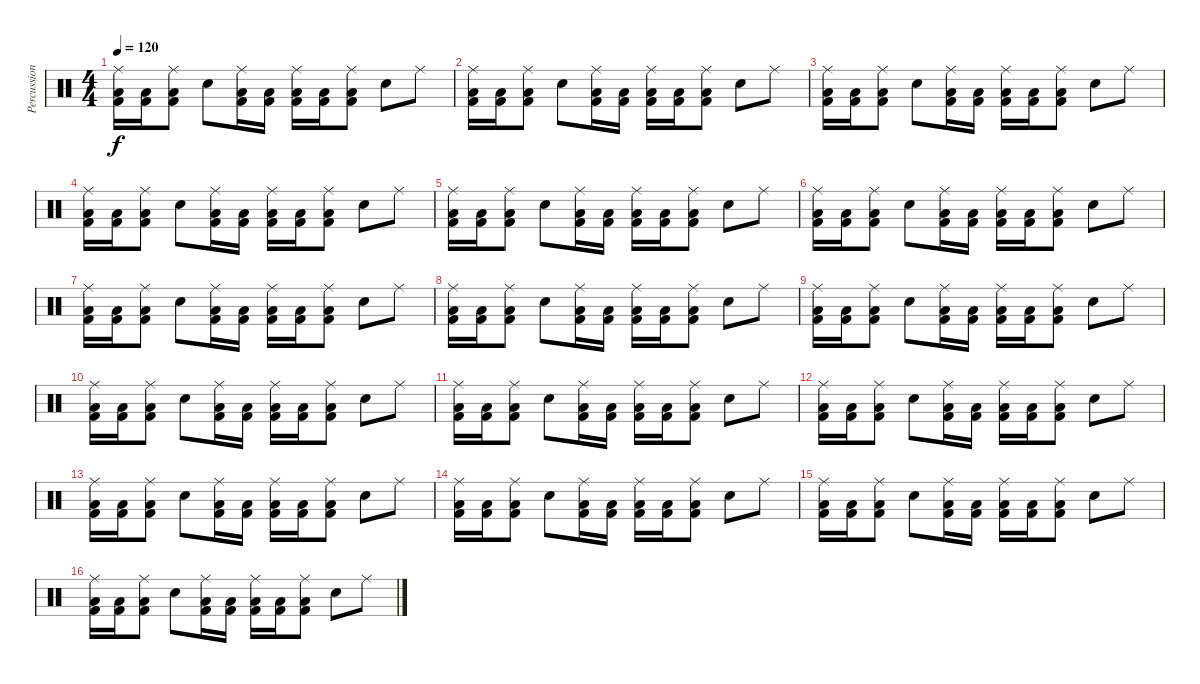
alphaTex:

\track ("Percussion" "Percussion") {instrument percussion}
\staff {score}
\articulation defaults
\ts (4 4)
\tempo 120
\clef neutral
\ks c
("Ride (middle)" "Low Floor Tom (hit)" "Kick (hit) 2").16{dy f} ("Low Floor Tom (hit)" "Kick (hit) 2").16 ("Ride (middle)" "Low Floor Tom (hit)" "Kick (hit) 2").8 "Electric Snare (hit)".8 ("Ride (middle)" "Low Floor Tom (hit)" "Kick (hit) 2").16 ("Low Floor Tom (hit)" "Kick (hit) 2").16 ("Ride (middle)" "Low Floor Tom (hit)" "Kick (hit) 2").16 ("Low Floor Tom (hit)" "Kick (hit) 2").16 ("Ride (middle)" "Low Floor Tom (hit)" "Kick (hit) 2").8 "Electric Snare (hit)".8 "Ride (middle)".8 |
("Ride (middle)" "Low Floor Tom (hit)" "Kick (hit) 2").16 ("Low Floor Tom (hit)" "Kick (hit) 2").16 ("Ride (middle)" "Low Floor Tom (hit)" "Kick (hit) 2").8 "Electric Snare (hit)".8 ("Ride (middle)" "Low Floor Tom (hit)" "Kick (hit) 2").16 ("Low Floor Tom (hit)" "Kick (hit) 2").16 ("Ride (middle)" "Low Floor Tom (hit)" "Kick (hit) 2").16 ("Low Floor Tom (hit)" "Kick (hit) 2").16 ("Ride (middle)" "Low Floor Tom (hit)" "Kick (hit) 2").8 "Electric Snare (hit)".8 "Ride (middle)".8 |
("Ride (middle)" "Low Floor Tom (hit)" "Kick (hit) 2").16 ("Low Floor Tom (hit)" "Kick (hit) 2").16 ("Ride (middle)" "Low Floor Tom (hit)" "Kick (hit) 2").8 "Electric Snare (hit)".8 ("Ride (middle)" "Low Floor Tom (hit)" "Kick (hit) 2").16 ("Low Floor Tom (hit)" "Kick (hit) 2").16 ("Ride (middle)" "Low Floor Tom (hit)" "Kick (hit) 2").16 ("Low Floor Tom (hit)" "Kick (hit) 2").16 ("Ride (middle)" "Low Floor Tom (hit)" "Kick (hit) 2").8 "Electric Snare (hit)".8 "Ride (middle)".8 |
("Ride (middle)" "Low Floor Tom (hit)" "Kick (hit) 2").16 ("Low Floor Tom (hit)" "Kick (hit) 2").16 ("Ride (middle)" "Low Floor Tom (hit)" "Kick (hit) 2").8 "Electric Snare (hit)".8 ("Ride (middle)" "Low Floor Tom (hit)" "Kick (hit) 2").16 ("Low Floor Tom (hit)" "Kick (hit) 2").16 ("Ride (middle)" "Low Floor Tom (hit)" "Kick (hit) 2").16 ("Low Floor Tom (hit)" "Kick (hit) 2").16 ("Ride (middle)" "Low Floor Tom (hit)" "Kick (hit) 2").8 "Electric Snare (hit)".8 "Ride (middle)".8 |
("Ride (middle)" "Low Floor Tom (hit)" "Kick (hit) 2").16 ("Low Floor Tom (hit)" "Kick (hit) 2").16 ("Ride (middle)" "Low Floor Tom (hit)" "Kick (hit) 2").8 "Electric Snare (hit)".8 ("Ride (middle)" "Low Floor Tom (hit)" "Kick (hit) 2").16 ("Low Floor Tom (hit)" "Kick (hit) 2").16 ("Ride (middle)" "Low Floor Tom (hit)" "Kick (hit) 2").16 ("Low Floor Tom (hit)" "Kick (hit) 2").16 ("Ride (middle)" "Low Floor Tom (hit)" "Kick (hit) 2").8 "Electric Snare (hit)".8 "Ride (middle)".8 |
("Ride (middle)" "Low Floor Tom (hit)" "Kick (hit) 2").16 ("Low Floor Tom (hit)" "Kick (hit) 2").16 ("Ride (middle)" "Low Floor Tom (hit)" "Kick (hit) 2").8 "Electric Snare (hit)".8 ("Ride (middle)" "Low Floor Tom (hit)" "Kick (hit) 2").16 ("Low Floor Tom (hit)" "Kick (hit) 2").16 ("Ride (middle)" "Low Floor Tom (hit)" "Kick (hit) 2").16 ("Low Floor Tom (hit)" "Kick (hit) 2").16 ("Ride (middle)" "Low Floor Tom (hit)" "Kick (hit) 2").8 "Electric Snare (hit)".8 "Ride (middle)".8 |
("Ride (middle)" "Low Floor Tom (hit)" "Kick (hit) 2").16 ("Low Floor Tom (hit)" "Kick (hit) 2").16 ("Ride (middle)" "Low Floor Tom (hit)" "Kick (hit) 2").8 "Electric Snare (hit)".8 ("Ride (middle)" "Low Floor Tom (hit)" "Kick (hit) 2").16 ("Low Floor Tom (hit)" "Kick (hit) 2").16 ("Ride (middle)" "Low Floor Tom (hit)" "Kick (hit) 2").16 ("Low Floor Tom (hit)" "Kick (hit) 2").16 ("Ride (middle)" "Low Floor Tom (hit)" "Kick (hit) 2").8 "Electric Snare (hit)".8 "Ride (middle)".8 |
("Ride (middle)" "Low Floor Tom (hit)" "Kick (hit) 2").16 ("Low Floor Tom (hit)" "Kick (hit) 2").16 ("Ride (middle)" "Low Floor Tom (hit)" "Kick (hit) 2").8 "Electric Snare (hit)".8 ("Ride (middle)" "Low Floor Tom (hit)" "Kick (hit) 2").16 ("Low Floor Tom (hit)" "Kick (hit) 2").16 ("Ride (middle)" "Low Floor Tom (hit)" "Kick (hit) 2").16 ("Low Floor Tom (hit)" "Kick (hit) 2").16 ("Ride (middle)" "Low Floor Tom (hit)" "Kick (hit) 2").8 "Electric Snare (hit)".8 "Ride (middle)".8 |
("Ride (middle)" "Low Floor Tom (hit)" "Kick (hit) 2").16 ("Low Floor Tom (hit)" "Kick (hit) 2").16 ("Ride (middle)" "Low Floor Tom (hit)" "Kick (hit) 2").8 "Electric Snare (hit)".8 ("Ride (middle)" "Low Floor Tom (hit)" "Kick (hit) 2").16 ("Low Floor Tom (hit)" "Kick (hit) 2").16 ("Ride (middle)" "Low Floor Tom (hit)" "Kick (hit) 2").16 ("Low Floor Tom (hit)" "Kick (hit) 2").16 ("Ride (middle)" "Low Floor Tom (hit)" "Kick (hit) 2").8 "Electric Snare (hit)".8 "Ride (middle)".8 |
("Ride (middle)" "Low Floor Tom (hit)" "Kick (hit) 2").16 ("Low Floor Tom (hit)" "Kick (hit) 2").16 ("Ride (middle)" "Low Floor Tom (hit)" "Kick (hit) 2").8 "Electric Snare (hit)".8 ("Ride (middle)" "Low Floor Tom (hit)" "Kick (hit) 2").16 ("Low Floor Tom (hit)" "Kick (hit) 2").16 ("Ride (middle)" "Low Floor Tom (hit)" "Kick (hit) 2").16 ("Low Floor Tom (hit)" "Kick (hit) 2").16 ("Ride (middle)" "Low Floor Tom (hit)" "Kick (hit) 2").8 "Electric Snare (hit)".8 "Ride (middle)".8 |
("Ride (middle)" "Low Floor Tom (hit)" "Kick (hit) 2").16 ("Low Floor Tom (hit)" "Kick (hit) 2").16 ("Ride (middle)" "Low Floor Tom (hit)" "Kick (hit) 2").8 "Electric Snare (hit)".8 ("Ride (middle)" "Low Floor Tom (hit)" "Kick (hit) 2").16 ("Low Floor Tom (hit)" "Kick (hit) 2").16 ("Ride (middle)" "Low Floor Tom (hit)" "Kick (hit) 2").16 ("Low Floor Tom (hit)" "Kick (hit) 2").16 ("Ride (middle)" "Low Floor Tom (hit)" "Kick (hit) 2").8 "Electric Snare (hit)".8 "Ride (middle)".8 |
("Ride (middle)" "Low Floor Tom (hit)" "Kick (hit) 2").16 ("Low Floor Tom (hit)" "Kick (hit) 2").16 ("Ride (middle)" "Low Floor Tom (hit)" "Kick (hit) 2").8 "Electric Snare (hit)".8 ("Ride (middle)" "Low Floor Tom (hit)" "Kick (hit) 2").16 ("Low Floor Tom (hit)" "Kick (hit) 2").16 ("Ride (middle)" "Low Floor Tom (hit)" "Kick (hit) 2").16 ("Low Floor Tom (hit)" "Kick (hit) 2").16 ("Ride (middle)" "Low Floor Tom (hit)" "Kick (hit) 2").8 "Electric Snare (hit)".8 "Ride (middle)".8 |
("Ride (middle)" "Low Floor Tom (hit)" "Kick (hit) 2").16 ("Low Floor Tom (hit)" "Kick (hit) 2").16 ("Ride (middle)" "Low Floor Tom (hit)" "Kick (hit) 2").8 "Electric Snare (hit)".8 ("Ride (middle)" "Low Floor Tom (hit)" "Kick (hit) 2").16 ("Low Floor Tom (hit)" "Kick (hit) 2").16 ("Ride (middle)" "Low Floor Tom (hit)" "Kick (hit) 2").16 ("Low Floor Tom (hit)" "Kick (hit) 2").16 ("Ride (middle)" "Low Floor Tom (hit)" "Kick (hit) 2").8 "Electric Snare (hit)".8 "Ride (middle)".8 |
("Ride (middle)" "Low Floor Tom (hit)" "Kick (hit) 2").16 ("Low Floor Tom (hit)" "Kick (hit) 2").16 ("Ride (middle)" "Low Floor Tom (hit)" "Kick (hit) 2").8 "Electric Snare (hit)".8 ("Ride (middle)" "Low Floor Tom (hit)" "Kick (hit) 2").16 ("Low Floor Tom (hit)" "Kick (hit) 2").16 ("Ride (middle)" "Low Floor Tom (hit)" "Kick (hit) 2").16 ("Low Floor Tom (hit)" "Kick (hit) 2").16 ("Ride (middle)" "Low Floor Tom (hit)" "Kick (hit) 2").8 "Electric Snare (hit)".8 "Ride (middle)".8 |
("Ride (middle)" "Low Floor Tom (hit)" "Kick (hit) 2").16 ("Low Floor Tom (hit)" "Kick (hit) 2").16 ("Ride (middle)" "Low Floor Tom (hit)" "Kick (hit) 2").8 "Electric Snare (hit)".8 ("Ride (middle)" "Low Floor Tom (hit)" "Kick (hit) 2").16 ("Low Floor Tom (hit)" "Kick (hit) 2").16 ("Ride (middle)" "Low Floor Tom (hit)" "Kick (hit) 2").16 ("Low Floor Tom (hit)" "Kick (hit) 2").16 ("Ride (middle)" "Low Floor Tom (hit)" "Kick (hit) 2").8 "Electric Snare (hit)".8 "Ride (middle)".8 |
("Ride (middle)" "Low Floor Tom (hit)" "Kick (hit) 2").16 ("Low Floor Tom (hit)" "Kick (hit) 2").16 ("Ride (middle)" "Low Floor Tom (hit)" "Kick (hit) 2").8 "Electric Snare (hit)".8 ("Ride (middle)" "Low Floor Tom (hit)" "Kick (hit) 2").16 ("Low Floor Tom (hit)" "Kick (hit) 2").16 ("Ride (middle)" "Low Floor Tom (hit)" "Kick (hit) 2").16 ("Low Floor Tom (hit)" "Kick (hit) 2").16 ("Ride (middle)" "Low Floor Tom (hit)" "Kick (hit) 2").8 "Electric Snare (hit)".8 "Ride (middle)".8
